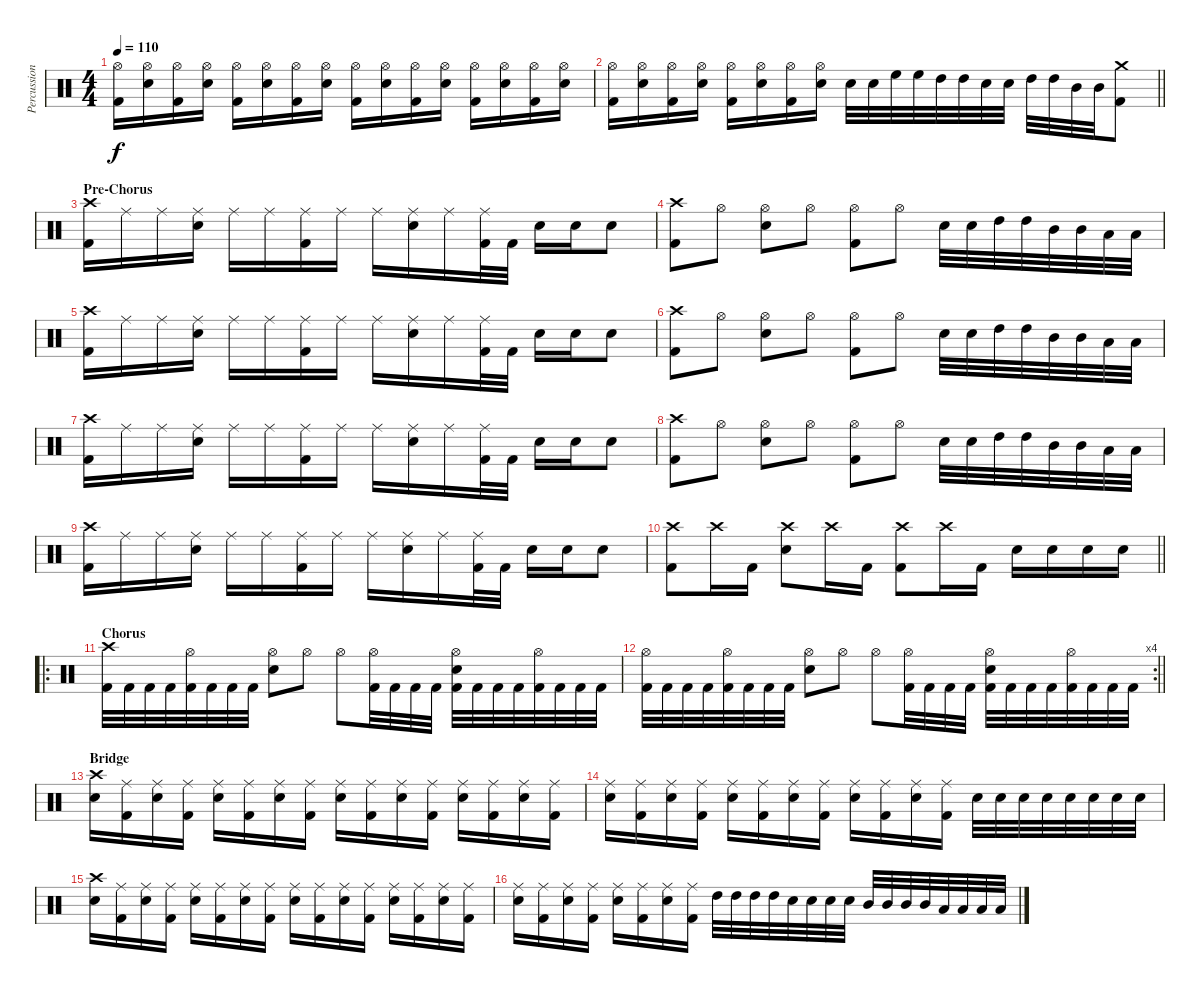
\track ("Percussion" "Percussion") {instrument percussion}
\staff {score}
\articulation defaults
\ts (4 4)
\tempo 110
\clef neutral
\ks c
("Hi-Hat (open)" "Kick (hit) 2").16{dy f} ("Hi-Hat (open)" "Snare (hit) 2").16 ("Hi-Hat (open)" "Kick (hit) 2").16 ("Hi-Hat (open)" "Snare (hit) 2").16 ("Hi-Hat (open)" "Kick (hit) 2").16 ("Hi-Hat (open)" "Snare (hit) 2").16 ("Hi-Hat (open)" "Kick (hit) 2").16 ("Hi-Hat (open)" "Snare (hit) 2").16 ("Hi-Hat (open)" "Kick (hit) 2").16 ("Hi-Hat (open)" "Snare (hit) 2").16 ("Hi-Hat (open)" "Kick (hit) 2").16 ("Hi-Hat (open)" "Snare (hit) 2").16 ("Hi-Hat (open)" "Kick (hit) 2").16 ("Hi-Hat (open)" "Snare (hit) 2").16 ("Hi-Hat (open)" "Kick (hit) 2").16 ("Hi-Hat (open)" "Snare (hit) 2").16 |
\barLineRight lightlight
("Hi-Hat (open)" "Kick (hit) 2").16 ("Hi-Hat (open)" "Snare (hit) 2").16 ("Hi-Hat (open)" "Kick (hit) 2").16 ("Hi-Hat (open)" "Snare (hit) 2").16 ("Hi-Hat (open)" "Kick (hit) 2").16 ("Hi-Hat (open)" "Snare (hit) 2").16 ("Hi-Hat (open)" "Kick (hit) 2").16 ("Hi-Hat (open)" "Snare (hit) 2").16 "Snare (hit) 2".32 "Snare (hit) 2".32 "High Floor Tom (hit)".32 "High Floor Tom (hit)".32 "High Tom (hit)".32 "High Tom (hit)".32 "Snare (hit) 2".32 "Snare (hit) 2".32 "High Tom (hit)".32 "High Tom (hit)".32 "Mid Tom (hit)".32 "Mid Tom (hit)".32 ("Crash medium (hit)" "Kick (hit) 2").8 |
\section ("" "Pre-Chorus")
("Crash high (hit)" "Kick (hit) 2").16 "Ride (middle)".16 "Ride (middle)".16 ("Ride (middle)" "Snare (hit) 2").16 "Ride (middle)".16 "Ride (middle)".16 ("Ride (middle)" "Kick (hit) 2").16 "Ride (middle)".16 "Ride (middle)".16 ("Ride (middle)" "Snare (hit) 2").16 "Ride (middle)".16 ("Ride (middle)" "Kick (hit) 2").32 "Kick (hit) 2".32 "Snare (hit) 2".16 "Snare (hit) 2".16 "Snare (hit) 2".8 |
("Crash high (hit)" "Kick (hit) 2").8 "Hi-Hat (open)".8 ("Hi-Hat (open)" "Snare (hit) 2").8 "Hi-Hat (open)".8 ("Hi-Hat (open)" "Kick (hit) 2").8 "Hi-Hat (open)".8 "Snare (hit) 2".32 "Snare (hit) 2".32 "High Tom (hit)".32 "High Tom (hit)".32 "Mid Tom (hit)".32 "Mid Tom (hit)".32 "Low Tom (hit)".32 "Low Tom (hit)".32 |
("Crash high (hit)" "Kick (hit) 2").16 "Ride (middle)".16 "Ride (middle)".16 ("Ride (middle)" "Snare (hit) 2").16 "Ride (middle)".16 "Ride (middle)".16 ("Ride (middle)" "Kick (hit) 2").16 "Ride (middle)".16 "Ride (middle)".16 ("Ride (middle)" "Snare (hit) 2").16 "Ride (middle)".16 ("Ride (middle)" "Kick (hit) 2").32 "Kick (hit) 2".32 "Snare (hit) 2".16 "Snare (hit) 2".16 "Snare (hit) 2".8 |
("Crash high (hit)" "Kick (hit) 2").8 "Hi-Hat (open)".8 ("Hi-Hat (open)" "Snare (hit) 2").8 "Hi-Hat (open)".8 ("Hi-Hat (open)" "Kick (hit) 2").8 "Hi-Hat (open)".8 "Snare (hit) 2".32 "Snare (hit) 2".32 "High Tom (hit)".32 "High Tom (hit)".32 "Mid Tom (hit)".32 "Mid Tom (hit)".32 "Low Tom (hit)".32 "Low Tom (hit)".32 |
("Crash high (hit)" "Kick (hit) 2").16 "Ride (middle)".16 "Ride (middle)".16 ("Ride (middle)" "Snare (hit) 2").16 "Ride (middle)".16 "Ride (middle)".16 ("Ride (middle)" "Kick (hit) 2").16 "Ride (middle)".16 "Ride (middle)".16 ("Ride (middle)" "Snare (hit) 2").16 "Ride (middle)".16 ("Ride (middle)" "Kick (hit) 2").32 "Kick (hit) 2".32 "Snare (hit) 2".16 "Snare (hit) 2".16 "Snare (hit) 2".8 |
("Crash high (hit)" "Kick (hit) 2").8 "Hi-Hat (open)".8 ("Hi-Hat (open)" "Snare (hit) 2").8 "Hi-Hat (open)".8 ("Hi-Hat (open)" "Kick (hit) 2").8 "Hi-Hat (open)".8 "Snare (hit) 2".32 "Snare (hit) 2".32 "High Tom (hit)".32 "High Tom (hit)".32 "Mid Tom (hit)".32 "Mid Tom (hit)".32 "Low Tom (hit)".32 "Low Tom (hit)".32 |
("Crash high (hit)" "Kick (hit) 2").16 "Ride (middle)".16 "Ride (middle)".16 ("Ride (middle)" "Snare (hit) 2").16 "Ride (middle)".16 "Ride (middle)".16 ("Ride (middle)" "Kick (hit) 2").16 "Ride (middle)".16 "Ride (middle)".16 ("Ride (middle)" "Snare (hit) 2").16 "Ride (middle)".16 ("Ride (middle)" "Kick (hit) 2").32 "Kick (hit) 2".32 "Snare (hit) 2".16 "Snare (hit) 2".16 "Snare (hit) 2".8 |
\barLineRight lightlight
("Crash high (hit)" "Kick (hit) 2").8 "Crash high (hit)".16 "Kick (hit) 2".16 ("Crash high (hit)" "Snare (hit) 2").8 "Crash high (hit)".16 "Kick (hit) 2".16 ("Crash high (hit)" "Kick (hit) 2").8 "Crash high (hit)".16 "Kick (hit) 2".16 "Snare (hit) 2".16 "Snare (hit) 2".16 "Snare (hit) 2".16 "Snare (hit) 2".16 |
\ro
\section ("" "Chorus")
("Crash high (hit)" "Kick (hit) 2").32 "Kick (hit) 2".32 "Kick (hit) 2".32 "Kick (hit) 2".32 ("Hi-Hat (open)" "Kick (hit) 2").32 "Kick (hit) 2".32 "Kick (hit) 2".32 "Kick (hit) 2".32 ("Hi-Hat (open)" "Snare (hit) 2").8 "Hi-Hat (open)".8 "Hi-Hat (open)".8 ("Hi-Hat (open)" "Kick (hit) 2").32 "Kick (hit) 2".32 "Kick (hit) 2".32 "Kick (hit) 2".32 ("Hi-Hat (open)" "Snare (hit) 2" "Kick (hit) 2").32 "Kick (hit) 2".32 "Kick (hit) 2".32 "Kick (hit) 2".32 ("Hi-Hat (open)" "Kick (hit) 2").32 "Kick (hit) 2".32 "Kick (hit) 2".32 "Kick (hit) 2".32 |
\rc 4
\barLineRight lightlight
("Hi-Hat (open)" "Kick (hit) 2").32 "Kick (hit) 2".32 "Kick (hit) 2".32 "Kick (hit) 2".32 ("Hi-Hat (open)" "Kick (hit) 2").32 "Kick (hit) 2".32 "Kick (hit) 2".32 "Kick (hit) 2".32 ("Hi-Hat (open)" "Snare (hit) 2").8 "Hi-Hat (open)".8 "Hi-Hat (open)".8 ("Hi-Hat (open)" "Kick (hit) 2").32 "Kick (hit) 2".32 "Kick (hit) 2".32 "Kick (hit) 2".32 ("Hi-Hat (open)" "Snare (hit) 2" "Kick (hit) 2").32 "Kick (hit) 2".32 "Kick (hit) 2".32 "Kick (hit) 2".32 ("Hi-Hat (open)" "Kick (hit) 2").32 "Kick (hit) 2".32 "Kick (hit) 2".32 "Kick (hit) 2".32 |
\section ("" "Bridge")
("Crash high (hit)" "Snare (hit) 2").16 ("Ride (middle)" "Kick (hit) 2").16 ("Ride (middle)" "Snare (hit) 2").16 ("Ride (middle)" "Kick (hit) 2").16 ("Ride (middle)" "Snare (hit) 2").16 ("Ride (middle)" "Kick (hit) 2").16 ("Ride (middle)" "Snare (hit) 2").16 ("Ride (middle)" "Kick (hit) 2").16 ("Ride (middle)" "Snare (hit) 2").16 ("Ride (middle)" "Kick (hit) 2").16 ("Ride (middle)" "Snare (hit) 2").16 ("Ride (middle)" "Kick (hit) 2").16 ("Ride (middle)" "Snare (hit) 2").16 ("Ride (middle)" "Kick (hit) 2").16 ("Ride (middle)" "Snare (hit) 2").16 ("Ride (middle)" "Kick (hit) 2").16 |
("Ride (middle)" "Snare (hit) 2").16 ("Ride (middle)" "Kick (hit) 2").16 ("Ride (middle)" "Snare (hit) 2").16 ("Ride (middle)" "Kick (hit) 2").16 ("Ride (middle)" "Snare (hit) 2").16 ("Ride (middle)" "Kick (hit) 2").16 ("Ride (middle)" "Snare (hit) 2").16 ("Ride (middle)" "Kick (hit) 2").16 ("Ride (middle)" "Snare (hit) 2").16 ("Ride (middle)" "Kick (hit) 2").16 ("Ride (middle)" "Snare (hit) 2").16 ("Ride (middle)" "Kick (hit) 2").16 "Snare (hit) 2".32 "Snare (hit) 2".32 "Snare (hit) 2".32 "Snare (hit) 2".32 "Snare (hit) 2".32 "Snare (hit) 2".32 "Snare (hit) 2".32 "Snare (hit) 2".32 |
("Crash high (hit)" "Snare (hit) 2").16 ("Ride (middle)" "Kick (hit) 2").16 ("Ride (middle)" "Snare (hit) 2").16 ("Ride (middle)" "Kick (hit) 2").16 ("Ride (middle)" "Snare (hit) 2").16 ("Ride (middle)" "Kick (hit) 2").16 ("Ride (middle)" "Snare (hit) 2").16 ("Ride (middle)" "Kick (hit) 2").16 ("Ride (middle)" "Snare (hit) 2").16 ("Ride (middle)" "Kick (hit) 2").16 ("Ride (middle)" "Snare (hit) 2").16 ("Ride (middle)" "Kick (hit) 2").16 ("Ride (middle)" "Snare (hit) 2").16 ("Ride (middle)" "Kick (hit) 2").16 ("Ride (middle)" "Snare (hit) 2").16 ("Ride (middle)" "Kick (hit) 2").16 |
("Ride (middle)" "Snare (hit) 2").16 ("Ride (middle)" "Kick (hit) 2").16 ("Ride (middle)" "Snare (hit) 2").16 ("Ride (middle)" "Kick (hit) 2").16 ("Ride (middle)" "Snare (hit) 2").16 ("Ride (middle)" "Kick (hit) 2").16 ("Ride (middle)" "Snare (hit) 2").16 ("Ride (middle)" "Kick (hit) 2").16 "High Tom (hit)".32 "High Tom (hit)".32 "High Tom (hit)".32 "High Tom (hit)".32 "Snare (hit) 2".32 "Snare (hit) 2".32 "Snare (hit) 2".32 "Snare (hit) 2".32 "Mid Tom (hit)".32 "Mid Tom (hit)".32 "Mid Tom (hit)".32 "Mid Tom (hit)".32 "Low Tom (hit)".32 "Low Tom (hit)".32 "Low Tom (hit)".32 "Low Tom (hit)".32
